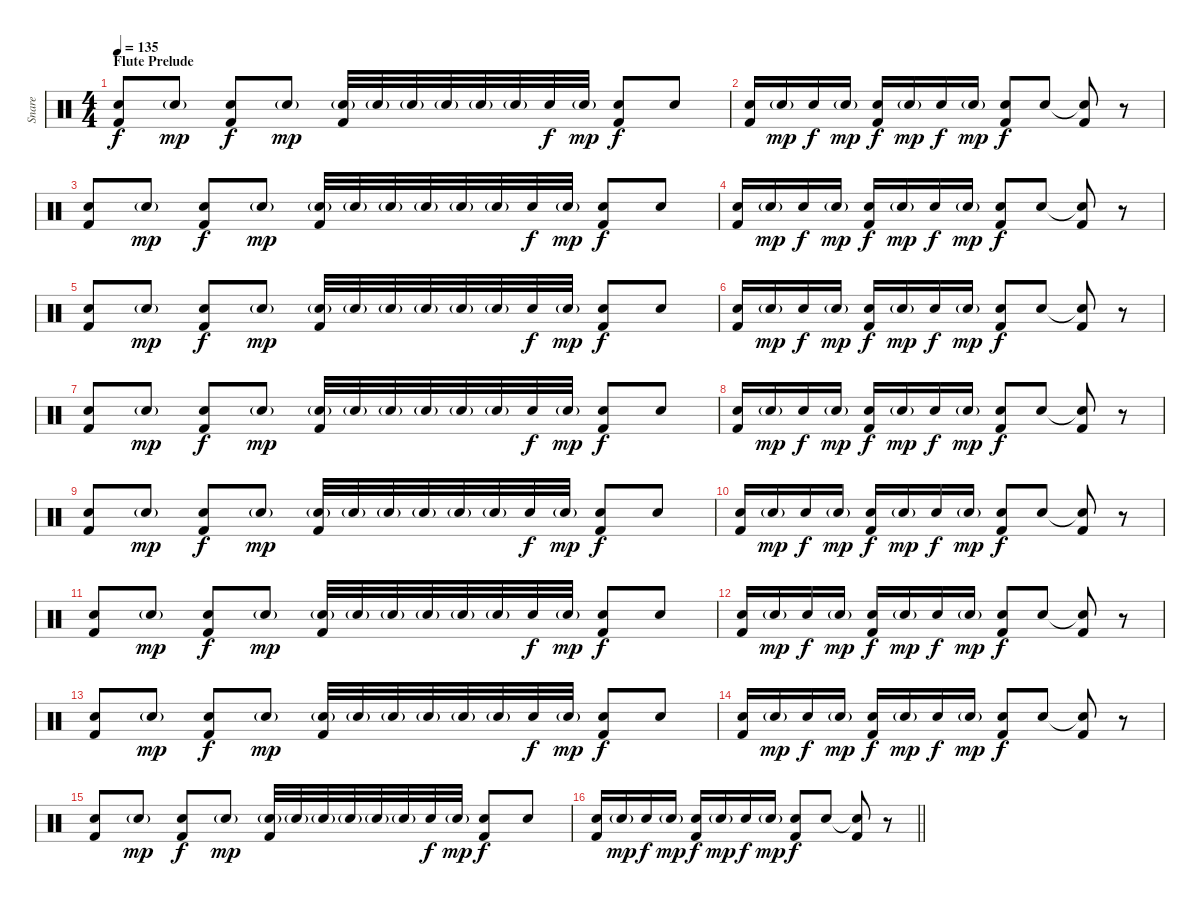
\track ("Snare" "Snare") {instrument percussion}
\staff {score}
\articulation defaults
\ts (4 4)
\section ("" "Flute Prelude")
\tempo 135
\clef neutral
\ks c
("Snare (hit) 2" "Kick (hit) 2").8{dy f volume 13} "Snare (hit) 2"{g}.8{dy mp} ("Snare (hit) 2" "Kick (hit) 2").8{dy f} "Snare (hit) 2"{g}.8{dy mp} ("Snare (hit) 2"{g} "Kick (hit) 2").32 "Snare (hit) 2"{g}.32 "Snare (hit) 2"{g}.32 "Snare (hit) 2"{g}.32 "Snare (hit) 2"{g}.32 "Snare (hit) 2"{g}.32 "Snare (hit) 2".32{dy f} "Snare (hit) 2"{g}.32{dy mp} ("Snare (hit) 2" "Kick (hit) 2").8{dy f} "Snare (hit) 2".8 |
("Snare (hit) 2" "Kick (hit) 2").16 "Snare (hit) 2"{g}.16{dy mp} "Snare (hit) 2".16{dy f} "Snare (hit) 2"{g}.16{dy mp} ("Snare (hit) 2" "Kick (hit) 2").16{dy f} "Snare (hit) 2"{g}.16{dy mp} "Snare (hit) 2".16{dy f} "Snare (hit) 2"{g}.16{dy mp} ("Snare (hit) 2" "Kick (hit) 2").8{dy f} "Snare (hit) 2".8 ("Snare (hit)"{t} "Kick (hit) 2").8 r.8 |
("Snare (hit) 2" "Kick (hit) 2").8 "Snare (hit) 2"{g}.8{dy mp} ("Snare (hit) 2" "Kick (hit) 2").8{dy f} "Snare (hit) 2"{g}.8{dy mp} ("Snare (hit) 2"{g} "Kick (hit) 2").32 "Snare (hit) 2"{g}.32 "Snare (hit) 2"{g}.32 "Snare (hit) 2"{g}.32 "Snare (hit) 2"{g}.32 "Snare (hit) 2"{g}.32 "Snare (hit) 2".32{dy f} "Snare (hit) 2"{g}.32{dy mp} ("Snare (hit) 2" "Kick (hit) 2").8{dy f} "Snare (hit) 2".8 |
("Snare (hit) 2" "Kick (hit) 2").16 "Snare (hit) 2"{g}.16{dy mp} "Snare (hit) 2".16{dy f} "Snare (hit) 2"{g}.16{dy mp} ("Snare (hit) 2" "Kick (hit) 2").16{dy f} "Snare (hit) 2"{g}.16{dy mp} "Snare (hit) 2".16{dy f} "Snare (hit) 2"{g}.16{dy mp} ("Snare (hit) 2" "Kick (hit) 2").8{dy f} "Snare (hit) 2".8 ("Snare (hit)"{t} "Kick (hit) 2").8 r.8 |
("Snare (hit) 2" "Kick (hit) 2").8 "Snare (hit) 2"{g}.8{dy mp} ("Snare (hit) 2" "Kick (hit) 2").8{dy f} "Snare (hit) 2"{g}.8{dy mp} ("Snare (hit) 2"{g} "Kick (hit) 2").32 "Snare (hit) 2"{g}.32 "Snare (hit) 2"{g}.32 "Snare (hit) 2"{g}.32 "Snare (hit) 2"{g}.32 "Snare (hit) 2"{g}.32 "Snare (hit) 2".32{dy f} "Snare (hit) 2"{g}.32{dy mp} ("Snare (hit) 2" "Kick (hit) 2").8{dy f} "Snare (hit) 2".8 |
("Snare (hit) 2" "Kick (hit) 2").16 "Snare (hit) 2"{g}.16{dy mp} "Snare (hit) 2".16{dy f} "Snare (hit) 2"{g}.16{dy mp} ("Snare (hit) 2" "Kick (hit) 2").16{dy f} "Snare (hit) 2"{g}.16{dy mp} "Snare (hit) 2".16{dy f} "Snare (hit) 2"{g}.16{dy mp} ("Snare (hit) 2" "Kick (hit) 2").8{dy f} "Snare (hit) 2".8 ("Snare (hit)"{t} "Kick (hit) 2").8 r.8 |
("Snare (hit) 2" "Kick (hit) 2").8 "Snare (hit) 2"{g}.8{dy mp} ("Snare (hit) 2" "Kick (hit) 2").8{dy f} "Snare (hit) 2"{g}.8{dy mp} ("Snare (hit) 2"{g} "Kick (hit) 2").32 "Snare (hit) 2"{g}.32 "Snare (hit) 2"{g}.32 "Snare (hit) 2"{g}.32 "Snare (hit) 2"{g}.32 "Snare (hit) 2"{g}.32 "Snare (hit) 2".32{dy f} "Snare (hit) 2"{g}.32{dy mp} ("Snare (hit) 2" "Kick (hit) 2").8{dy f} "Snare (hit) 2".8 |
("Snare (hit) 2" "Kick (hit) 2").16 "Snare (hit) 2"{g}.16{dy mp} "Snare (hit) 2".16{dy f} "Snare (hit) 2"{g}.16{dy mp} ("Snare (hit) 2" "Kick (hit) 2").16{dy f} "Snare (hit) 2"{g}.16{dy mp} "Snare (hit) 2".16{dy f} "Snare (hit) 2"{g}.16{dy mp} ("Snare (hit) 2" "Kick (hit) 2").8{dy f} "Snare (hit) 2".8 ("Snare (hit)"{t} "Kick (hit) 2").8 r.8 |
("Snare (hit) 2" "Kick (hit) 2").8 "Snare (hit) 2"{g}.8{dy mp} ("Snare (hit) 2" "Kick (hit) 2").8{dy f} "Snare (hit) 2"{g}.8{dy mp} ("Snare (hit) 2"{g} "Kick (hit) 2").32 "Snare (hit) 2"{g}.32 "Snare (hit) 2"{g}.32 "Snare (hit) 2"{g}.32 "Snare (hit) 2"{g}.32 "Snare (hit) 2"{g}.32 "Snare (hit) 2".32{dy f} "Snare (hit) 2"{g}.32{dy mp} ("Snare (hit) 2" "Kick (hit) 2").8{dy f} "Snare (hit) 2".8 |
("Snare (hit) 2" "Kick (hit) 2").16 "Snare (hit) 2"{g}.16{dy mp} "Snare (hit) 2".16{dy f} "Snare (hit) 2"{g}.16{dy mp} ("Snare (hit) 2" "Kick (hit) 2").16{dy f} "Snare (hit) 2"{g}.16{dy mp} "Snare (hit) 2".16{dy f} "Snare (hit) 2"{g}.16{dy mp} ("Snare (hit) 2" "Kick (hit) 2").8{dy f} "Snare (hit) 2".8 ("Snare (hit)"{t} "Kick (hit) 2").8 r.8 |
("Snare (hit) 2" "Kick (hit) 2").8 "Snare (hit) 2"{g}.8{dy mp} ("Snare (hit) 2" "Kick (hit) 2").8{dy f} "Snare (hit) 2"{g}.8{dy mp} ("Snare (hit) 2"{g} "Kick (hit) 2").32 "Snare (hit) 2"{g}.32 "Snare (hit) 2"{g}.32 "Snare (hit) 2"{g}.32 "Snare (hit) 2"{g}.32 "Snare (hit) 2"{g}.32 "Snare (hit) 2".32{dy f} "Snare (hit) 2"{g}.32{dy mp} ("Snare (hit) 2" "Kick (hit) 2").8{dy f} "Snare (hit) 2".8 |
("Snare (hit) 2" "Kick (hit) 2").16 "Snare (hit) 2"{g}.16{dy mp} "Snare (hit) 2".16{dy f} "Snare (hit) 2"{g}.16{dy mp} ("Snare (hit) 2" "Kick (hit) 2").16{dy f} "Snare (hit) 2"{g}.16{dy mp} "Snare (hit) 2".16{dy f} "Snare (hit) 2"{g}.16{dy mp} ("Snare (hit) 2" "Kick (hit) 2").8{dy f} "Snare (hit) 2".8 ("Snare (hit)"{t} "Kick (hit) 2").8 r.8 |
("Snare (hit) 2" "Kick (hit) 2").8 "Snare (hit) 2"{g}.8{dy mp} ("Snare (hit) 2" "Kick (hit) 2").8{dy f} "Snare (hit) 2"{g}.8{dy mp} ("Snare (hit) 2"{g} "Kick (hit) 2").32 "Snare (hit) 2"{g}.32 "Snare (hit) 2"{g}.32 "Snare (hit) 2"{g}.32 "Snare (hit) 2"{g}.32 "Snare (hit) 2"{g}.32 "Snare (hit) 2".32{dy f} "Snare (hit) 2"{g}.32{dy mp} ("Snare (hit) 2" "Kick (hit) 2").8{dy f} "Snare (hit) 2".8 |
("Snare (hit) 2" "Kick (hit) 2").16 "Snare (hit) 2"{g}.16{dy mp} "Snare (hit) 2".16{dy f} "Snare (hit) 2"{g}.16{dy mp} ("Snare (hit) 2" "Kick (hit) 2").16{dy f} "Snare (hit) 2"{g}.16{dy mp} "Snare (hit) 2".16{dy f} "Snare (hit) 2"{g}.16{dy mp} ("Snare (hit) 2" "Kick (hit) 2").8{dy f} "Snare (hit) 2".8 ("Snare (hit)"{t} "Kick (hit) 2").8 r.8 |
("Snare (hit) 2" "Kick (hit) 2").8 "Snare (hit) 2"{g}.8{dy mp} ("Snare (hit) 2" "Kick (hit) 2").8{dy f} "Snare (hit) 2"{g}.8{dy mp} ("Snare (hit) 2"{g} "Kick (hit) 2").32 "Snare (hit) 2"{g}.32 "Snare (hit) 2"{g}.32 "Snare (hit) 2"{g}.32 "Snare (hit) 2"{g}.32 "Snare (hit) 2"{g}.32 "Snare (hit) 2".32{dy f} "Snare (hit) 2"{g}.32{dy mp} ("Snare (hit) 2" "Kick (hit) 2").8{dy f} "Snare (hit) 2".8 |
\barLineRight lightlight
("Snare (hit) 2" "Kick (hit) 2").16 "Snare (hit) 2"{g}.16{dy mp} "Snare (hit) 2".16{dy f} "Snare (hit) 2"{g}.16{dy mp} ("Snare (hit) 2" "Kick (hit) 2").16{dy f} "Snare (hit) 2"{g}.16{dy mp} "Snare (hit) 2".16{dy f} "Snare (hit) 2"{g}.16{dy mp} ("Snare (hit) 2" "Kick (hit) 2").8{dy f} "Snare (hit) 2".8 ("Snare (hit)"{t} "Kick (hit) 2").8 r.8
